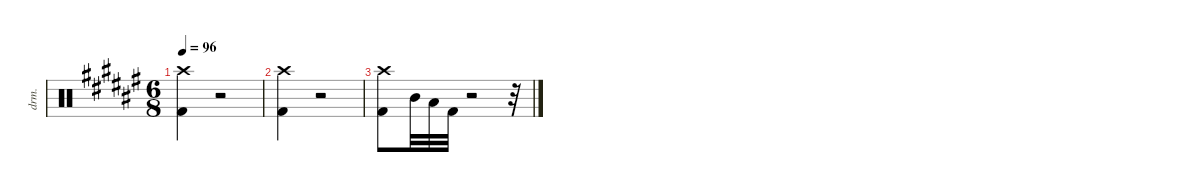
\defaultSystemsLayout 4
\hideDynamics
\bracketExtendMode nobrackets
\otherSystemsTrackNameOrientation horizontal
\track ("Drumkit" "drm.") {instrument percussion}
\staff {score}
\articulation defaults
\ts (6 8)
\tempo 96
\clef neutral
\ks f#
("Kick (hit) 2"{acc forcenatural} "Crash high (hit)"{acc #}).4{dy ff} r.2 |
("Kick (hit) 2"{acc forcenatural} "Crash high (hit)"{acc #}).4 r.2 |
("Kick (hit) 2"{acc forcenatural} "Crash high (hit)"{acc #}).8 "Mid Tom (hit)"{acc forcenatural}.32 "Low Tom (hit)"{acc forcenatural}.32 "Kick (hit) 2"{acc forcenatural}.32 r.2 r.32
